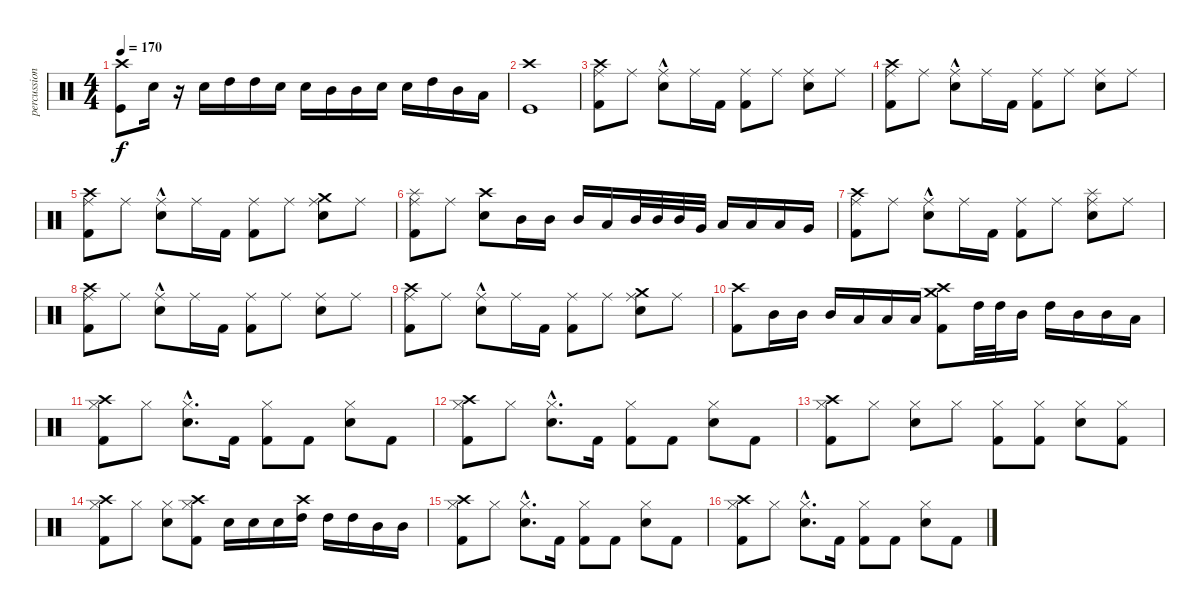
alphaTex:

\track ("percussion" "percussion") {instrument percussion}
\staff {score}
\articulation defaults
\ts (4 4)
\tempo 170
\clef neutral
\ks c
("Crash high (hit)" "Kick (hit)").8{dy f} "Snare (hit) 2".16 r.16 "Snare (hit) 2".16 "High Tom (hit)".16 "High Tom (hit)".16 "Snare (hit) 2".16 "Snare (hit) 2".16 "Mid Tom (hit)".16 "Mid Tom (hit)".16 "Snare (hit) 2".16 "Snare (hit) 2".16 "High Tom (hit)".16 "Mid Tom (hit)".16 "Low Tom (hit)".16 |
("Crash high (hit)" "Kick (hit)").1 |
("Kick (hit) 2" "Crash high (hit)" "Ride (middle)").8 "Ride (middle)".8 ("Electric Snare (hit)"{hac} "Ride (middle)").8 "Ride (middle)".16 "Kick (hit) 2".16 ("Kick (hit) 2" "Ride (middle)").8 "Ride (middle)".8 ("Electric Snare (hit)" "Ride (middle)").8 "Ride (middle)".8 |
("Ride (middle)" "Crash high (hit)" "Kick (hit) 2").8 "Ride (middle)".8 ("Electric Snare (hit)"{hac} "Ride (middle)").8 "Ride (middle)".16 "Kick (hit) 2".16 ("Kick (hit) 2" "Ride (middle)").8 "Ride (middle)".8 ("Electric Snare (hit)" "Ride (middle)").8 "Ride (middle)".8 |
("Ride (middle)" "Crash high (hit)" "Kick (hit) 2").8 "Ride (middle)".8 ("Electric Snare (hit)"{hac} "Ride (middle)").8 "Ride (middle)".16 "Kick (hit) 2".16 ("Kick (hit) 2" "Ride (middle)").8 "Ride (middle)".8 ("Electric Snare (hit)" "Ride (middle)" "Crash medium (hit)").8 "Ride (middle)".8 |
("Ride (middle)" "Kick (hit) 2" "Splash (hit)").8 "Ride (middle)".8 ("Electric Snare (hit)" "Crash high (hit)").8 "Mid Tom (hit)".16 "Mid Tom (hit)".16 "Mid Tom (hit)".16 "Low Tom (hit)".16 "Mid Tom (hit)".32 "Mid Tom (hit)".32 "Mid Tom (hit)".32 "Very Low Tom (hit)".32 "Low Tom (hit)".16 "Low Tom (hit)".16 "Low Tom (hit)".16 "Very Low Tom (hit)".16 |
("Kick (hit) 2" "Crash high (hit)" "Ride (middle)").8 "Ride (middle)".8 ("Electric Snare (hit)"{hac} "Ride (middle)").8 "Ride (middle)".16 "Kick (hit) 2".16 ("Kick (hit) 2" "Ride (middle)").8 "Ride (middle)".8 ("Electric Snare (hit)" "Ride (middle)" "Splash (hit)").8 "Ride (middle)".8 |
("Kick (hit) 2" "Crash high (hit)" "Ride (middle)").8 "Ride (middle)".8 ("Electric Snare (hit)"{hac} "Ride (middle)").8 "Ride (middle)".16 "Kick (hit) 2".16 ("Kick (hit) 2" "Ride (middle)").8 "Ride (middle)".8 ("Electric Snare (hit)" "Ride (middle)").8 "Ride (middle)".8 |
("Ride (middle)" "Crash high (hit)" "Kick (hit) 2").8 "Ride (middle)".8 ("Electric Snare (hit)"{hac} "Ride (middle)").8 "Ride (middle)".16 "Kick (hit) 2".16 ("Kick (hit) 2" "Ride (middle)").8 "Ride (middle)".8 ("Electric Snare (hit)" "Ride (middle)" "Crash medium (hit)").8 "Ride (middle)".8 |
("Kick (hit) 2" "Crash high (hit)").8 "Mid Tom (hit)".16 "Mid Tom (hit)".16 "Mid Tom (hit)".16 "Low Tom (hit)".16 "Low Tom (hit)".16 "Low Tom (hit)".16 ("Crash high (hit)" "Crash medium (hit)" "Kick (hit) 2").8 "High Tom (hit)".32 "High Tom (hit)".32 "Mid Tom (hit)".16 "High Tom (hit)".16 "Mid Tom (hit)".16 "Mid Tom (hit)".16 "Low Tom (hit)".16 |
("Crash high (hit)" "Hi-Hat (closed)" "Kick (hit) 2").8 "Hi-Hat (closed)".8 ("Hi-Hat (closed)"{hac} "Snare (hit) 2"{hac}).8{d} "Kick (hit) 2".16 ("Hi-Hat (closed)" "Kick (hit) 2").8 "Kick (hit) 2".8 ("Hi-Hat (closed)" "Snare (hit) 2").8 "Kick (hit) 2".8 |
("Crash high (hit)" "Hi-Hat (closed)" "Kick (hit) 2").8 "Hi-Hat (closed)".8 ("Hi-Hat (closed)"{hac} "Snare (hit) 2"{hac}).8{d} "Kick (hit) 2".16 ("Hi-Hat (closed)" "Kick (hit) 2").8 "Kick (hit) 2".8 ("Hi-Hat (closed)" "Snare (hit) 2").8 "Kick (hit) 2".8 |
("Crash high (hit)" "Hi-Hat (closed)" "Kick (hit) 2").8 "Hi-Hat (closed)".8 ("Hi-Hat (closed)" "Snare (hit) 2").8 "Hi-Hat (closed)".8 ("Hi-Hat (closed)" "Kick (hit) 2").8 ("Hi-Hat (closed)" "Kick (hit) 2").8 ("Hi-Hat (closed)" "Snare (hit) 2").8 ("Hi-Hat (closed)" "Kick (hit) 2").8 |
("Crash high (hit)" "Hi-Hat (closed)" "Kick (hit) 2").8 "Hi-Hat (closed)".8 ("Hi-Hat (closed)" "Snare (hit) 2").8 ("Crash high (hit)" "Hi-Hat (closed)" "Kick (hit) 2").8 "Snare (hit) 2".16 "Snare (hit) 2".16 "Snare (hit) 2".16 ("Crash high (hit)" "High Tom (hit)").16 "High Tom (hit)".16 "High Tom (hit)".16 "Mid Tom (hit)".16 "Mid Tom (hit)".16 |
("Crash high (hit)" "Hi-Hat (closed)" "Kick (hit) 2").8 "Hi-Hat (closed)".8 ("Hi-Hat (closed)"{hac} "Snare (hit) 2"{hac}).8{d} "Kick (hit) 2".16 ("Hi-Hat (closed)" "Kick (hit) 2").8 "Kick (hit) 2".8 ("Hi-Hat (closed)" "Snare (hit) 2").8 "Kick (hit) 2".8 |
("Crash high (hit)" "Hi-Hat (closed)" "Kick (hit) 2").8 "Hi-Hat (closed)".8 ("Hi-Hat (closed)"{hac} "Snare (hit) 2"{hac}).8{d} "Kick (hit) 2".16 ("Hi-Hat (closed)" "Kick (hit) 2").8 "Kick (hit) 2".8 ("Hi-Hat (closed)" "Snare (hit) 2").8 "Kick (hit) 2".8
